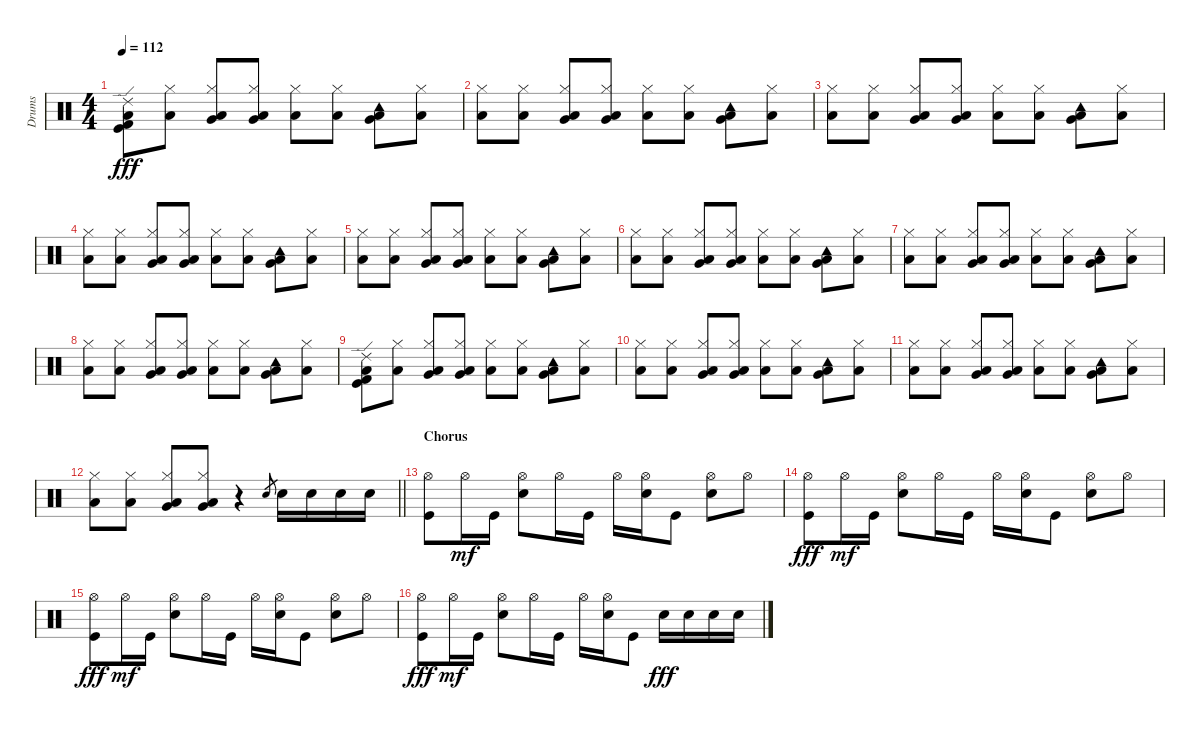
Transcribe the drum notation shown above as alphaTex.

\track ("Drums" "Drums") {instrument percussion}
\staff {score}
\articulation defaults
\ts (4 4)
\tempo 112
\clef neutral
\ks c
("Ride (edge) 2" "Kick (hit)" "Low Floor Tom (hit)" "Kick (hit) 2").8{dy fff} ("Hi-Hat (closed)" "Low Floor Tom (hit)").8 ("Hi-Hat (closed)" "Very Low Tom (hit)" "Low Floor Tom (hit)").8 ("Hi-Hat (closed)" "Very Low Tom (hit)" "Low Floor Tom (hit)").8 ("Hi-Hat (closed)" "Low Floor Tom (hit)").8 ("Hi-Hat (closed)" "Low Floor Tom (hit)").8 ("Tambourine (hit)" "Very Low Tom (hit)" "Low Floor Tom (hit)").8 ("Hi-Hat (closed)" "Low Floor Tom (hit)").8 |
("Hi-Hat (closed)" "Low Floor Tom (hit)").8 ("Hi-Hat (closed)" "Low Floor Tom (hit)").8 ("Hi-Hat (closed)" "Very Low Tom (hit)" "Low Floor Tom (hit)").8 ("Hi-Hat (closed)" "Very Low Tom (hit)" "Low Floor Tom (hit)").8 ("Hi-Hat (closed)" "Low Floor Tom (hit)").8 ("Hi-Hat (closed)" "Low Floor Tom (hit)").8 ("Tambourine (hit)" "Very Low Tom (hit)" "Low Floor Tom (hit)").8 ("Hi-Hat (closed)" "Low Floor Tom (hit)").8 |
("Hi-Hat (closed)" "Low Floor Tom (hit)").8 ("Hi-Hat (closed)" "Low Floor Tom (hit)").8 ("Hi-Hat (closed)" "Very Low Tom (hit)" "Low Floor Tom (hit)").8 ("Hi-Hat (closed)" "Very Low Tom (hit)" "Low Floor Tom (hit)").8 ("Hi-Hat (closed)" "Low Floor Tom (hit)").8 ("Hi-Hat (closed)" "Low Floor Tom (hit)").8 ("Tambourine (hit)" "Very Low Tom (hit)" "Low Floor Tom (hit)").8 ("Hi-Hat (closed)" "Low Floor Tom (hit)").8 |
("Hi-Hat (closed)" "Low Floor Tom (hit)").8 ("Hi-Hat (closed)" "Low Floor Tom (hit)").8 ("Hi-Hat (closed)" "Very Low Tom (hit)" "Low Floor Tom (hit)").8 ("Hi-Hat (closed)" "Very Low Tom (hit)" "Low Floor Tom (hit)").8 ("Hi-Hat (closed)" "Low Floor Tom (hit)").8 ("Hi-Hat (closed)" "Low Floor Tom (hit)").8 ("Tambourine (hit)" "Very Low Tom (hit)" "Low Floor Tom (hit)").8 ("Hi-Hat (closed)" "Low Floor Tom (hit)").8 |
("Hi-Hat (closed)" "Low Floor Tom (hit)").8 ("Hi-Hat (closed)" "Low Floor Tom (hit)").8 ("Hi-Hat (closed)" "Very Low Tom (hit)" "Low Floor Tom (hit)").8 ("Hi-Hat (closed)" "Very Low Tom (hit)" "Low Floor Tom (hit)").8 ("Hi-Hat (closed)" "Low Floor Tom (hit)").8 ("Hi-Hat (closed)" "Low Floor Tom (hit)").8 ("Tambourine (hit)" "Very Low Tom (hit)" "Low Floor Tom (hit)").8 ("Hi-Hat (closed)" "Low Floor Tom (hit)").8 |
("Hi-Hat (closed)" "Low Floor Tom (hit)").8 ("Hi-Hat (closed)" "Low Floor Tom (hit)").8 ("Hi-Hat (closed)" "Very Low Tom (hit)" "Low Floor Tom (hit)").8 ("Hi-Hat (closed)" "Very Low Tom (hit)" "Low Floor Tom (hit)").8 ("Hi-Hat (closed)" "Low Floor Tom (hit)").8 ("Hi-Hat (closed)" "Low Floor Tom (hit)").8 ("Tambourine (hit)" "Very Low Tom (hit)" "Low Floor Tom (hit)").8 ("Hi-Hat (closed)" "Low Floor Tom (hit)").8 |
("Hi-Hat (closed)" "Low Floor Tom (hit)").8 ("Hi-Hat (closed)" "Low Floor Tom (hit)").8 ("Hi-Hat (closed)" "Very Low Tom (hit)" "Low Floor Tom (hit)").8 ("Hi-Hat (closed)" "Very Low Tom (hit)" "Low Floor Tom (hit)").8 ("Hi-Hat (closed)" "Low Floor Tom (hit)").8 ("Hi-Hat (closed)" "Low Floor Tom (hit)").8 ("Tambourine (hit)" "Very Low Tom (hit)" "Low Floor Tom (hit)").8 ("Hi-Hat (closed)" "Low Floor Tom (hit)").8 |
("Hi-Hat (closed)" "Low Floor Tom (hit)").8 ("Hi-Hat (closed)" "Low Floor Tom (hit)").8 ("Hi-Hat (closed)" "Very Low Tom (hit)" "Low Floor Tom (hit)").8 ("Hi-Hat (closed)" "Very Low Tom (hit)" "Low Floor Tom (hit)").8 ("Hi-Hat (closed)" "Low Floor Tom (hit)").8 ("Hi-Hat (closed)" "Low Floor Tom (hit)").8 ("Tambourine (hit)" "Very Low Tom (hit)" "Low Floor Tom (hit)").8 ("Hi-Hat (closed)" "Low Floor Tom (hit)").8 |
("Ride (edge) 2" "Kick (hit)" "Low Floor Tom (hit)" "Kick (hit) 2").8 ("Hi-Hat (closed)" "Low Floor Tom (hit)").8 ("Hi-Hat (closed)" "Very Low Tom (hit)" "Low Floor Tom (hit)").8 ("Hi-Hat (closed)" "Very Low Tom (hit)" "Low Floor Tom (hit)").8 ("Hi-Hat (closed)" "Low Floor Tom (hit)").8 ("Hi-Hat (closed)" "Low Floor Tom (hit)").8 ("Tambourine (hit)" "Very Low Tom (hit)" "Low Floor Tom (hit)").8 ("Hi-Hat (closed)" "Low Floor Tom (hit)").8 |
("Hi-Hat (closed)" "Low Floor Tom (hit)").8 ("Hi-Hat (closed)" "Low Floor Tom (hit)").8 ("Hi-Hat (closed)" "Very Low Tom (hit)" "Low Floor Tom (hit)").8 ("Hi-Hat (closed)" "Very Low Tom (hit)" "Low Floor Tom (hit)").8 ("Hi-Hat (closed)" "Low Floor Tom (hit)").8 ("Hi-Hat (closed)" "Low Floor Tom (hit)").8 ("Tambourine (hit)" "Very Low Tom (hit)" "Low Floor Tom (hit)").8 ("Hi-Hat (closed)" "Low Floor Tom (hit)").8 |
("Hi-Hat (closed)" "Low Floor Tom (hit)").8 ("Hi-Hat (closed)" "Low Floor Tom (hit)").8 ("Hi-Hat (closed)" "Very Low Tom (hit)" "Low Floor Tom (hit)").8 ("Hi-Hat (closed)" "Very Low Tom (hit)" "Low Floor Tom (hit)").8 ("Hi-Hat (closed)" "Low Floor Tom (hit)").8 ("Hi-Hat (closed)" "Low Floor Tom (hit)").8 ("Tambourine (hit)" "Very Low Tom (hit)" "Low Floor Tom (hit)").8 ("Hi-Hat (closed)" "Low Floor Tom (hit)").8 |
\barLineRight lightlight
("Hi-Hat (closed)" "Low Floor Tom (hit)").8 ("Hi-Hat (closed)" "Low Floor Tom (hit)").8 ("Hi-Hat (closed)" "Very Low Tom (hit)" "Low Floor Tom (hit)").8 ("Hi-Hat (closed)" "Very Low Tom (hit)" "Low Floor Tom (hit)").8 r.4 "Electric Snare (hit)".8{gr} "Electric Snare (hit)".16 "Electric Snare (hit)".16 "Electric Snare (hit)".16 "Electric Snare (hit)".16 |
\section ("" "Chorus")
("Hi-Hat (open)" "Kick (hit)").8 "Hi-Hat (open)".16{dy mf} "Kick (hit)".16 ("Hi-Hat (open)" "Electric Snare (hit)").8 "Hi-Hat (open)".16 "Kick (hit)".16 "Hi-Hat (open)".16 ("Hi-Hat (open)" "Electric Snare (hit)").16 "Kick (hit)".8 ("Hi-Hat (open)" "Electric Snare (hit)").8 "Hi-Hat (open)".8 |
("Hi-Hat (open)" "Kick (hit)").8{dy fff} "Hi-Hat (open)".16{dy mf} "Kick (hit)".16 ("Hi-Hat (open)" "Electric Snare (hit)").8 "Hi-Hat (open)".16 "Kick (hit)".16 "Hi-Hat (open)".16 ("Hi-Hat (open)" "Electric Snare (hit)").16 "Kick (hit)".8 ("Hi-Hat (open)" "Electric Snare (hit)").8 "Hi-Hat (open)".8 |
("Hi-Hat (open)" "Kick (hit)").8{dy fff} "Hi-Hat (open)".16{dy mf} "Kick (hit)".16 ("Hi-Hat (open)" "Electric Snare (hit)").8 "Hi-Hat (open)".16 "Kick (hit)".16 "Hi-Hat (open)".16 ("Hi-Hat (open)" "Electric Snare (hit)").16 "Kick (hit)".8 ("Hi-Hat (open)" "Electric Snare (hit)").8 "Hi-Hat (open)".8 |
("Hi-Hat (open)" "Kick (hit)").8{dy fff} "Hi-Hat (open)".16{dy mf} "Kick (hit)".16 ("Hi-Hat (open)" "Electric Snare (hit)").8 "Hi-Hat (open)".16 "Kick (hit)".16 "Hi-Hat (open)".16 ("Hi-Hat (open)" "Electric Snare (hit)").16 "Kick (hit)".8 "Electric Snare (hit)".16{dy fff} "Electric Snare (hit)".16 "Electric Snare (hit)".16 "Electric Snare (hit)".16
